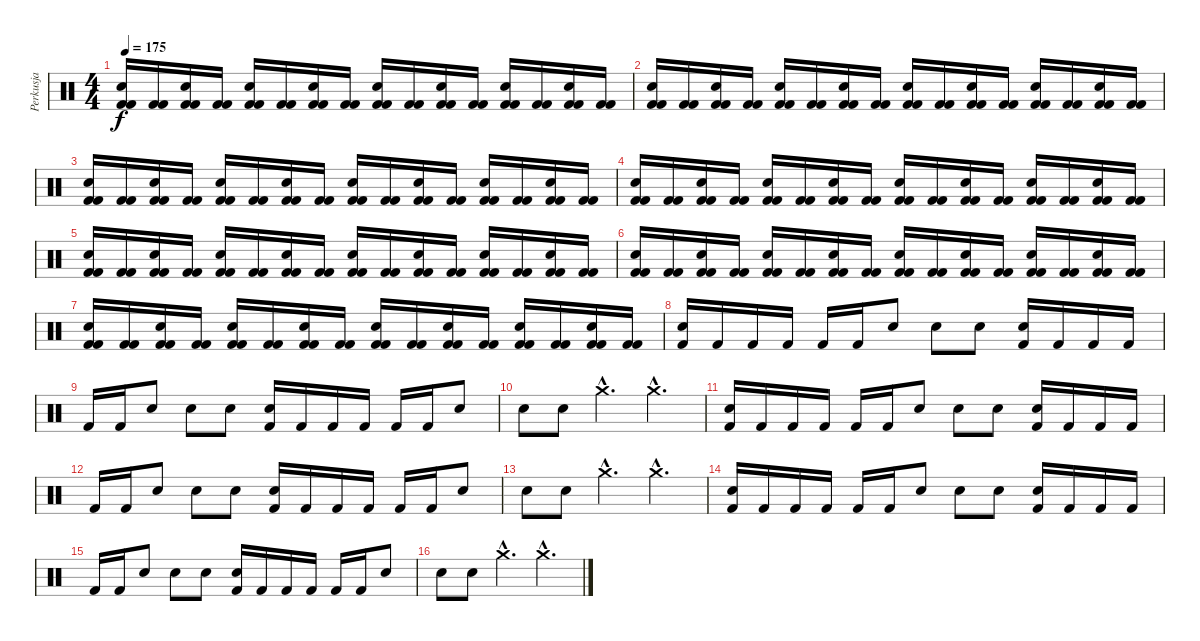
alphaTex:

\track ("Perkusja" "Perkusja") {instrument percussion}
\staff {score}
\articulation defaults
\ts (4 4)
\tempo 175
\clef neutral
\ks c
("Snare (hit) 2" "Kick (hit) 2" "Kick (hit) 2").16{dy f} ("Kick (hit) 2" "Kick (hit) 2").16 ("Snare (hit) 2" "Kick (hit) 2" "Kick (hit) 2").16 ("Kick (hit) 2" "Kick (hit) 2").16 ("Snare (hit) 2" "Kick (hit) 2" "Kick (hit) 2").16 ("Kick (hit) 2" "Kick (hit) 2").16 ("Snare (hit) 2" "Kick (hit) 2" "Kick (hit) 2").16 ("Kick (hit) 2" "Kick (hit) 2").16 ("Snare (hit) 2" "Kick (hit) 2" "Kick (hit) 2").16 ("Kick (hit) 2" "Kick (hit) 2").16 ("Snare (hit) 2" "Kick (hit) 2" "Kick (hit) 2").16 ("Kick (hit) 2" "Kick (hit) 2").16 ("Snare (hit) 2" "Kick (hit) 2" "Kick (hit) 2").16 ("Kick (hit) 2" "Kick (hit) 2").16 ("Snare (hit) 2" "Kick (hit) 2" "Kick (hit) 2").16 ("Kick (hit) 2" "Kick (hit) 2").16 |
("Snare (hit) 2" "Kick (hit) 2" "Kick (hit) 2").16 ("Kick (hit) 2" "Kick (hit) 2").16 ("Snare (hit) 2" "Kick (hit) 2" "Kick (hit) 2").16 ("Kick (hit) 2" "Kick (hit) 2").16 ("Snare (hit) 2" "Kick (hit) 2" "Kick (hit) 2").16 ("Kick (hit) 2" "Kick (hit) 2").16 ("Snare (hit) 2" "Kick (hit) 2" "Kick (hit) 2").16 ("Kick (hit) 2" "Kick (hit) 2").16 ("Snare (hit) 2" "Kick (hit) 2" "Kick (hit) 2").16 ("Kick (hit) 2" "Kick (hit) 2").16 ("Snare (hit) 2" "Kick (hit) 2" "Kick (hit) 2").16 ("Kick (hit) 2" "Kick (hit) 2").16 ("Snare (hit) 2" "Kick (hit) 2" "Kick (hit) 2").16 ("Kick (hit) 2" "Kick (hit) 2").16 ("Snare (hit) 2" "Kick (hit) 2" "Kick (hit) 2").16 ("Kick (hit) 2" "Kick (hit) 2").16 |
("Snare (hit) 2" "Kick (hit) 2" "Kick (hit) 2").16 ("Kick (hit) 2" "Kick (hit) 2").16 ("Snare (hit) 2" "Kick (hit) 2" "Kick (hit) 2").16 ("Kick (hit) 2" "Kick (hit) 2").16 ("Snare (hit) 2" "Kick (hit) 2" "Kick (hit) 2").16 ("Kick (hit) 2" "Kick (hit) 2").16 ("Snare (hit) 2" "Kick (hit) 2" "Kick (hit) 2").16 ("Kick (hit) 2" "Kick (hit) 2").16 ("Snare (hit) 2" "Kick (hit) 2" "Kick (hit) 2").16 ("Kick (hit) 2" "Kick (hit) 2").16 ("Snare (hit) 2" "Kick (hit) 2" "Kick (hit) 2").16 ("Kick (hit) 2" "Kick (hit) 2").16 ("Snare (hit) 2" "Kick (hit) 2" "Kick (hit) 2").16 ("Kick (hit) 2" "Kick (hit) 2").16 ("Snare (hit) 2" "Kick (hit) 2" "Kick (hit) 2").16 ("Kick (hit) 2" "Kick (hit) 2").16 |
("Snare (hit) 2" "Kick (hit) 2" "Kick (hit) 2").16 ("Kick (hit) 2" "Kick (hit) 2").16 ("Snare (hit) 2" "Kick (hit) 2" "Kick (hit) 2").16 ("Kick (hit) 2" "Kick (hit) 2").16 ("Snare (hit) 2" "Kick (hit) 2" "Kick (hit) 2").16 ("Kick (hit) 2" "Kick (hit) 2").16 ("Snare (hit) 2" "Kick (hit) 2" "Kick (hit) 2").16 ("Kick (hit) 2" "Kick (hit) 2").16 ("Snare (hit) 2" "Kick (hit) 2" "Kick (hit) 2").16 ("Kick (hit) 2" "Kick (hit) 2").16 ("Snare (hit) 2" "Kick (hit) 2" "Kick (hit) 2").16 ("Kick (hit) 2" "Kick (hit) 2").16 ("Snare (hit) 2" "Kick (hit) 2" "Kick (hit) 2").16 ("Kick (hit) 2" "Kick (hit) 2").16 ("Snare (hit) 2" "Kick (hit) 2" "Kick (hit) 2").16 ("Kick (hit) 2" "Kick (hit) 2").16 |
("Snare (hit) 2" "Kick (hit) 2" "Kick (hit) 2").16 ("Kick (hit) 2" "Kick (hit) 2").16 ("Snare (hit) 2" "Kick (hit) 2" "Kick (hit) 2").16 ("Kick (hit) 2" "Kick (hit) 2").16 ("Snare (hit) 2" "Kick (hit) 2" "Kick (hit) 2").16 ("Kick (hit) 2" "Kick (hit) 2").16 ("Snare (hit) 2" "Kick (hit) 2" "Kick (hit) 2").16 ("Kick (hit) 2" "Kick (hit) 2").16 ("Snare (hit) 2" "Kick (hit) 2" "Kick (hit) 2").16 ("Kick (hit) 2" "Kick (hit) 2").16 ("Snare (hit) 2" "Kick (hit) 2" "Kick (hit) 2").16 ("Kick (hit) 2" "Kick (hit) 2").16 ("Snare (hit) 2" "Kick (hit) 2" "Kick (hit) 2").16 ("Kick (hit) 2" "Kick (hit) 2").16 ("Snare (hit) 2" "Kick (hit) 2" "Kick (hit) 2").16 ("Kick (hit) 2" "Kick (hit) 2").16 |
("Snare (hit) 2" "Kick (hit) 2" "Kick (hit) 2").16 ("Kick (hit) 2" "Kick (hit) 2").16 ("Snare (hit) 2" "Kick (hit) 2" "Kick (hit) 2").16 ("Kick (hit) 2" "Kick (hit) 2").16 ("Snare (hit) 2" "Kick (hit) 2" "Kick (hit) 2").16 ("Kick (hit) 2" "Kick (hit) 2").16 ("Snare (hit) 2" "Kick (hit) 2" "Kick (hit) 2").16 ("Kick (hit) 2" "Kick (hit) 2").16 ("Snare (hit) 2" "Kick (hit) 2" "Kick (hit) 2").16 ("Kick (hit) 2" "Kick (hit) 2").16 ("Snare (hit) 2" "Kick (hit) 2" "Kick (hit) 2").16 ("Kick (hit) 2" "Kick (hit) 2").16 ("Snare (hit) 2" "Kick (hit) 2" "Kick (hit) 2").16 ("Kick (hit) 2" "Kick (hit) 2").16 ("Snare (hit) 2" "Kick (hit) 2" "Kick (hit) 2").16 ("Kick (hit) 2" "Kick (hit) 2").16 |
("Snare (hit) 2" "Kick (hit) 2" "Kick (hit) 2").16 ("Kick (hit) 2" "Kick (hit) 2").16 ("Snare (hit) 2" "Kick (hit) 2" "Kick (hit) 2").16 ("Kick (hit) 2" "Kick (hit) 2").16 ("Snare (hit) 2" "Kick (hit) 2" "Kick (hit) 2").16 ("Kick (hit) 2" "Kick (hit) 2").16 ("Snare (hit) 2" "Kick (hit) 2" "Kick (hit) 2").16 ("Kick (hit) 2" "Kick (hit) 2").16 ("Snare (hit) 2" "Kick (hit) 2" "Kick (hit) 2").16 ("Kick (hit) 2" "Kick (hit) 2").16 ("Snare (hit) 2" "Kick (hit) 2" "Kick (hit) 2").16 ("Kick (hit) 2" "Kick (hit) 2").16 ("Snare (hit) 2" "Kick (hit) 2" "Kick (hit) 2").16 ("Kick (hit) 2" "Kick (hit) 2").16 ("Snare (hit) 2" "Kick (hit) 2" "Kick (hit) 2").16 ("Kick (hit) 2" "Kick (hit) 2").16 |
("Snare (hit) 2" "Kick (hit) 2").16 "Kick (hit) 2".16 "Kick (hit) 2".16 "Kick (hit) 2".16 "Kick (hit) 2".16 "Kick (hit) 2".16 "Snare (hit) 2".8 "Snare (hit) 2".8 "Snare (hit) 2".8 ("Snare (hit) 2" "Kick (hit) 2").16 "Kick (hit) 2".16 "Kick (hit) 2".16 "Kick (hit) 2".16 |
"Kick (hit) 2".16 "Kick (hit) 2".16 "Snare (hit) 2".8 "Snare (hit) 2".8 "Snare (hit) 2".8 ("Snare (hit) 2" "Kick (hit) 2").16 "Kick (hit) 2".16 "Kick (hit) 2".16 "Kick (hit) 2".16 "Kick (hit) 2".16 "Kick (hit) 2".16 "Snare (hit) 2".8 |
"Snare (hit) 2".8 "Snare (hit) 2".8 "Crash medium (hit)"{hac}.4{d} "Crash medium (hit)"{hac}.4{d} |
("Snare (hit) 2" "Kick (hit) 2").16 "Kick (hit) 2".16 "Kick (hit) 2".16 "Kick (hit) 2".16 "Kick (hit) 2".16 "Kick (hit) 2".16 "Snare (hit) 2".8 "Snare (hit) 2".8 "Snare (hit) 2".8 ("Snare (hit) 2" "Kick (hit) 2").16 "Kick (hit) 2".16 "Kick (hit) 2".16 "Kick (hit) 2".16 |
"Kick (hit) 2".16 "Kick (hit) 2".16 "Snare (hit) 2".8 "Snare (hit) 2".8 "Snare (hit) 2".8 ("Snare (hit) 2" "Kick (hit) 2").16 "Kick (hit) 2".16 "Kick (hit) 2".16 "Kick (hit) 2".16 "Kick (hit) 2".16 "Kick (hit) 2".16 "Snare (hit) 2".8 |
"Snare (hit) 2".8 "Snare (hit) 2".8 "Crash medium (hit)"{hac}.4{d} "Crash medium (hit)"{hac}.4{d} |
("Snare (hit) 2" "Kick (hit) 2").16 "Kick (hit) 2".16 "Kick (hit) 2".16 "Kick (hit) 2".16 "Kick (hit) 2".16 "Kick (hit) 2".16 "Snare (hit) 2".8 "Snare (hit) 2".8 "Snare (hit) 2".8 ("Snare (hit) 2" "Kick (hit) 2").16 "Kick (hit) 2".16 "Kick (hit) 2".16 "Kick (hit) 2".16 |
"Kick (hit) 2".16 "Kick (hit) 2".16 "Snare (hit) 2".8 "Snare (hit) 2".8 "Snare (hit) 2".8 ("Snare (hit) 2" "Kick (hit) 2").16 "Kick (hit) 2".16 "Kick (hit) 2".16 "Kick (hit) 2".16 "Kick (hit) 2".16 "Kick (hit) 2".16 "Snare (hit) 2".8 |
"Snare (hit) 2".8 "Snare (hit) 2".8 "Crash medium (hit)"{hac}.4{d} "Crash medium (hit)"{hac}.4{d}
